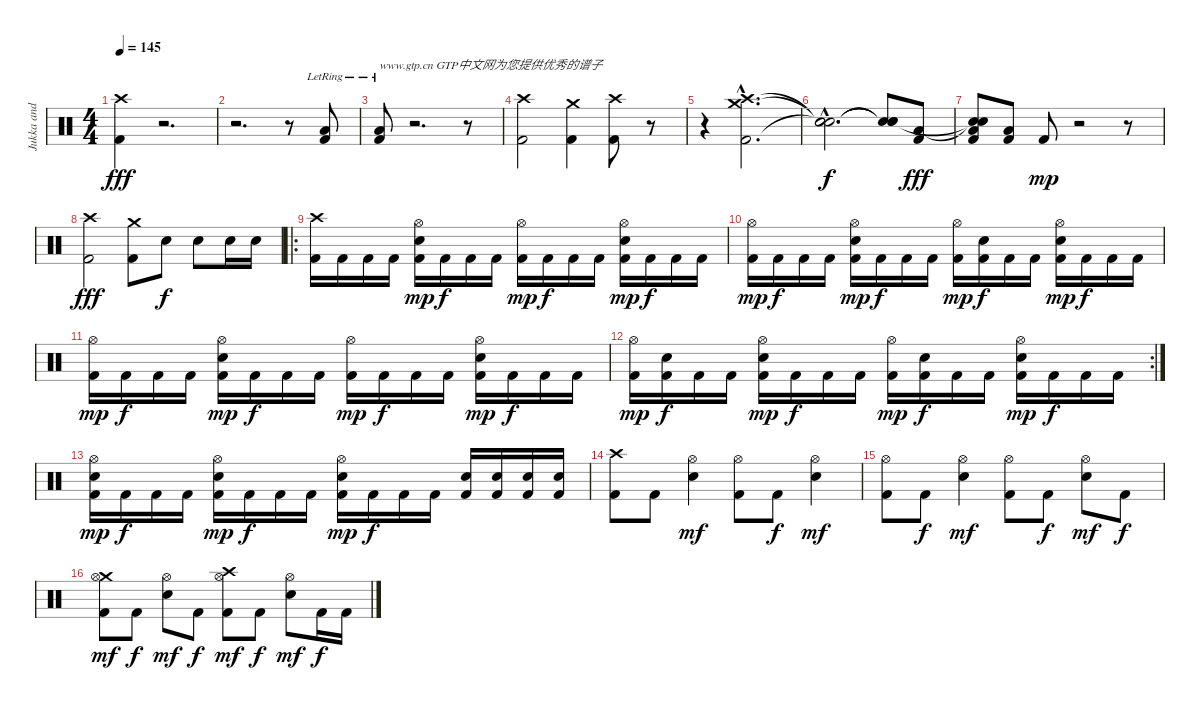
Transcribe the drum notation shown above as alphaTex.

\track ("Jukka and his drums" "Jukka and ") {instrument percussion}
\staff {score}
\articulation defaults
\ts (4 4)
\tempo 145
\clef neutral
\ks c
("Kick (hit) 2" "Crash high (hit)").4{dy fff} r.2{d} |
r.2{d} r.8 ("Kick (hit) 2" "Low Tom (hit)"{lr}).8 |
("Kick (hit) 2" "Low Tom (hit)"{lr}).8{txt "www.gtp.cn GTP中文网为您提供优秀的谱子"} r.2{d} r.8 |
("Kick (hit) 2" "Crash high (hit)").2 ("Kick (hit) 2" "Crash medium (hit)").4 ("Kick (hit) 2" "Crash high (hit)").8 r.8 |
r.4 ("Kick (hit) 2"{hac} "Crash high (hit)"{hac} "Crash medium (hit)"{hac}).2{d} |
("Snare (hit)"{hac t} "Snare (hit)"{hac t} "Snare (hit)"{hac t}).2{d dy f} ("Snare (hit)"{t} "Snare (hit)"{t} "Snare (hit)"{t}).8 ("Kick (hit) 2" "Low Tom (hit)").8{dy fff} |
("Kick (hit) 2" "Snare (hit)"{t} "Snare (hit)"{t} "Low Tom (hit)").8 ("Kick (hit) 2" "Low Tom (hit)").8 "Kick (hit) 2".8{dy mp} r.2 r.8 |
("Kick (hit) 2" "Crash high (hit)").2{dy fff} ("Kick (hit) 2" "Crash medium (hit)").8 "Snare (hit) 2".8{dy f} "Snare (hit) 2".8 "Snare (hit) 2".16 "Snare (hit) 2".16 |
\ro
("Kick (hit) 2" "Crash high (hit)").16 "Kick (hit) 2".16 "Kick (hit) 2".16 "Kick (hit) 2".16 ("Kick (hit) 2" "Hi-Hat (open)" "Snare (hit) 2").16{dy mp} "Kick (hit) 2".16{dy f} "Kick (hit) 2".16 "Kick (hit) 2".16 ("Kick (hit) 2" "Hi-Hat (open)").16{dy mp} "Kick (hit) 2".16{dy f} "Kick (hit) 2".16 "Kick (hit) 2".16 ("Kick (hit) 2" "Hi-Hat (open)" "Snare (hit) 2").16{dy mp} "Kick (hit) 2".16{dy f} "Kick (hit) 2".16 "Kick (hit) 2".16 |
("Kick (hit) 2" "Hi-Hat (open)").16{dy mp} "Kick (hit) 2".16{dy f} "Kick (hit) 2".16 "Kick (hit) 2".16 ("Kick (hit) 2" "Hi-Hat (open)" "Snare (hit) 2").16{dy mp} "Kick (hit) 2".16{dy f} "Kick (hit) 2".16 "Kick (hit) 2".16 ("Kick (hit) 2" "Hi-Hat (open)").16{dy mp} ("Kick (hit) 2" "Snare (hit) 2").16{dy f} "Kick (hit) 2".16 "Kick (hit) 2".16 ("Kick (hit) 2" "Hi-Hat (open)" "Snare (hit) 2").16{dy mp} "Kick (hit) 2".16{dy f} "Kick (hit) 2".16 "Kick (hit) 2".16 |
("Kick (hit) 2" "Hi-Hat (open)").16{dy mp} "Kick (hit) 2".16{dy f} "Kick (hit) 2".16 "Kick (hit) 2".16 ("Kick (hit) 2" "Hi-Hat (open)" "Snare (hit) 2").16{dy mp} "Kick (hit) 2".16{dy f} "Kick (hit) 2".16 "Kick (hit) 2".16 ("Kick (hit) 2" "Hi-Hat (open)").16{dy mp} "Kick (hit) 2".16{dy f} "Kick (hit) 2".16 "Kick (hit) 2".16 ("Kick (hit) 2" "Hi-Hat (open)" "Snare (hit) 2").16{dy mp} "Kick (hit) 2".16{dy f} "Kick (hit) 2".16 "Kick (hit) 2".16 |
\rc 2
("Kick (hit) 2" "Hi-Hat (open)").16{dy mp} ("Kick (hit) 2" "Snare (hit) 2").16{dy f} "Kick (hit) 2".16 "Kick (hit) 2".16 ("Kick (hit) 2" "Hi-Hat (open)" "Snare (hit) 2").16{dy mp} "Kick (hit) 2".16{dy f} "Kick (hit) 2".16 "Kick (hit) 2".16 ("Kick (hit) 2" "Hi-Hat (open)").16{dy mp} ("Kick (hit) 2" "Snare (hit) 2").16{dy f} "Kick (hit) 2".16 "Kick (hit) 2".16 ("Kick (hit) 2" "Hi-Hat (open)" "Snare (hit) 2").16{dy mp} "Kick (hit) 2".16{dy f} "Kick (hit) 2".16 "Kick (hit) 2".16 |
("Kick (hit) 2" "Hi-Hat (open)" "Snare (hit) 2").16{dy mp} "Kick (hit) 2".16{dy f} "Kick (hit) 2".16 "Kick (hit) 2".16 ("Kick (hit) 2" "Hi-Hat (open)" "Snare (hit) 2").16{dy mp} "Kick (hit) 2".16{dy f} "Kick (hit) 2".16 "Kick (hit) 2".16 ("Kick (hit) 2" "Hi-Hat (open)" "Snare (hit) 2").16{dy mp} "Kick (hit) 2".16{dy f} "Kick (hit) 2".16 "Kick (hit) 2".16 ("Kick (hit) 2" "Snare (hit) 2").16 ("Kick (hit) 2" "Snare (hit) 2").16 ("Kick (hit) 2" "Snare (hit) 2").16 ("Kick (hit) 2" "Snare (hit) 2").16 |
("Kick (hit) 2" "Crash high (hit)").8 "Kick (hit) 2".8 ("Hi-Hat (open)" "Snare (hit) 2").4{dy mf} ("Kick (hit) 2" "Hi-Hat (open)").8 "Kick (hit) 2".8{dy f} ("Hi-Hat (open)" "Snare (hit) 2").4{dy mf} |
("Kick (hit) 2" "Hi-Hat (open)").8 "Kick (hit) 2".8{dy f} ("Hi-Hat (open)" "Snare (hit) 2").4{dy mf} ("Kick (hit) 2" "Hi-Hat (open)").8 "Kick (hit) 2".8{dy f} ("Hi-Hat (open)" "Snare (hit) 2").8{dy mf} "Kick (hit) 2".8{dy f} |
("Kick (hit) 2" "Crash medium (hit)" "Hi-Hat (open)").8{dy mf} "Kick (hit) 2".8{dy f} ("Hi-Hat (open)" "Snare (hit) 2").8{dy mf} "Kick (hit) 2".8{dy f} ("Kick (hit) 2" "Crash high (hit)" "Hi-Hat (open)").8{dy mf} "Kick (hit) 2".8{dy f} ("Hi-Hat (open)" "Snare (hit) 2").8{dy mf} "Kick (hit) 2".16{dy f} "Kick (hit) 2".16
